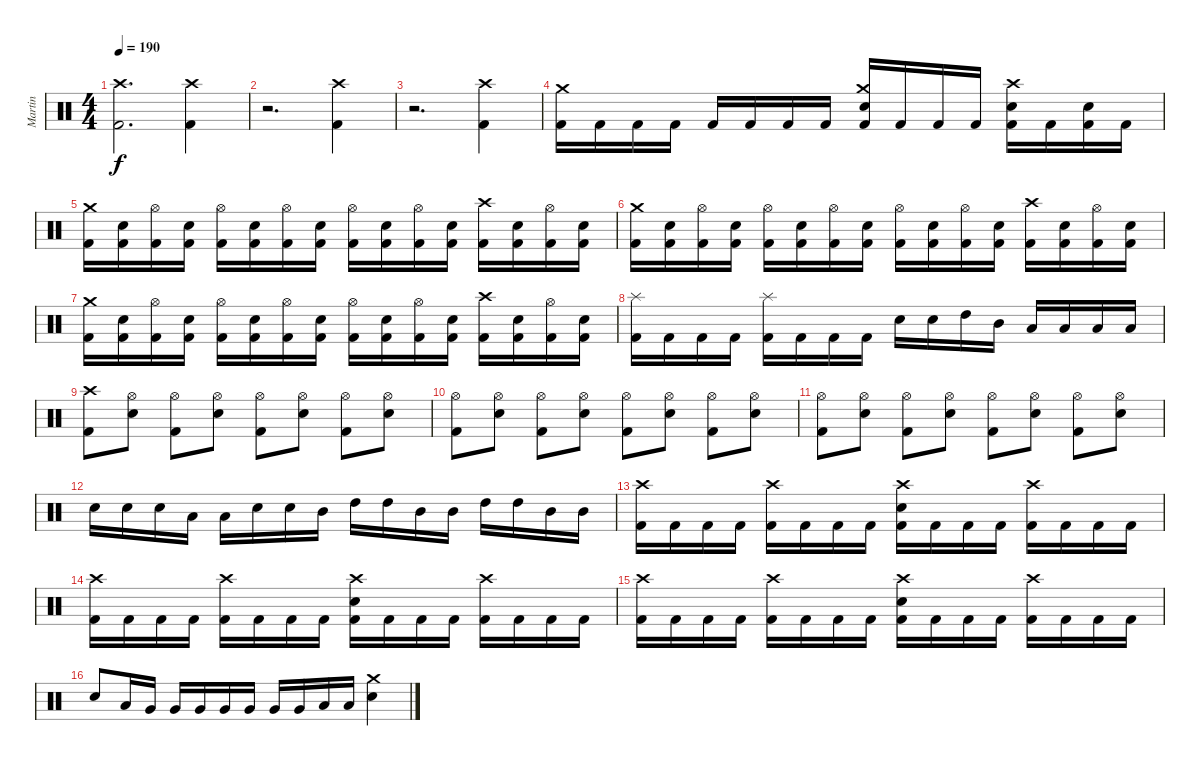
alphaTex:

\track ("Martin" "Martin") {instrument percussion}
\staff {score}
\articulation defaults
\ts (4 4)
\tempo 190
\clef neutral
\ks c
("Crash high (hit)" "Kick (hit) 2").2{d dy f} ("Crash high (hit)" "Kick (hit) 2").4 |
r.2{d} ("Crash high (hit)" "Kick (hit) 2").4 |
r.2{d} ("Crash high (hit)" "Kick (hit) 2").4 |
("Crash medium (hit)" "Kick (hit) 2").16 "Kick (hit) 2".16 "Kick (hit) 2".16 "Kick (hit) 2".16 "Kick (hit) 2".16 "Kick (hit) 2".16 "Kick (hit) 2".16 "Kick (hit) 2".16 ("Crash medium (hit)" "Snare (hit) 2" "Kick (hit) 2").16 "Kick (hit) 2".16 "Kick (hit) 2".16 "Kick (hit) 2".16 ("Crash high (hit)" "Snare (hit) 2" "Kick (hit) 2").16 "Kick (hit) 2".16 ("Snare (hit) 2" "Kick (hit) 2").16 "Kick (hit) 2".16 |
("Crash medium (hit)" "Kick (hit) 2").16 ("Snare (hit) 2" "Kick (hit) 2").16 ("Hi-Hat (open)" "Kick (hit) 2").16 ("Snare (hit) 2" "Kick (hit) 2").16 ("Hi-Hat (open)" "Kick (hit) 2").16 ("Snare (hit) 2" "Kick (hit) 2").16 ("Hi-Hat (open)" "Kick (hit) 2").16 ("Snare (hit) 2" "Kick (hit) 2").16 ("Hi-Hat (open)" "Kick (hit) 2").16 ("Snare (hit) 2" "Kick (hit) 2").16 ("Hi-Hat (open)" "Kick (hit) 2").16 ("Snare (hit) 2" "Kick (hit) 2").16 ("Crash high (hit)" "Kick (hit) 2").16 ("Snare (hit) 2" "Kick (hit) 2").16 ("Hi-Hat (open)" "Kick (hit) 2").16 ("Snare (hit) 2" "Kick (hit) 2").16 |
("Crash medium (hit)" "Kick (hit) 2").16 ("Snare (hit) 2" "Kick (hit) 2").16 ("Hi-Hat (open)" "Kick (hit) 2").16 ("Snare (hit) 2" "Kick (hit) 2").16 ("Hi-Hat (open)" "Kick (hit) 2").16 ("Snare (hit) 2" "Kick (hit) 2").16 ("Hi-Hat (open)" "Kick (hit) 2").16 ("Snare (hit) 2" "Kick (hit) 2").16 ("Hi-Hat (open)" "Kick (hit) 2").16 ("Snare (hit) 2" "Kick (hit) 2").16 ("Hi-Hat (open)" "Kick (hit) 2").16 ("Snare (hit) 2" "Kick (hit) 2").16 ("Crash high (hit)" "Kick (hit) 2").16 ("Snare (hit) 2" "Kick (hit) 2").16 ("Hi-Hat (open)" "Kick (hit) 2").16 ("Snare (hit) 2" "Kick (hit) 2").16 |
("Crash medium (hit)" "Kick (hit) 2").16 ("Snare (hit) 2" "Kick (hit) 2").16 ("Hi-Hat (open)" "Kick (hit) 2").16 ("Snare (hit) 2" "Kick (hit) 2").16 ("Hi-Hat (open)" "Kick (hit) 2").16 ("Snare (hit) 2" "Kick (hit) 2").16 ("Hi-Hat (open)" "Kick (hit) 2").16 ("Snare (hit) 2" "Kick (hit) 2").16 ("Hi-Hat (open)" "Kick (hit) 2").16 ("Snare (hit) 2" "Kick (hit) 2").16 ("Hi-Hat (open)" "Kick (hit) 2").16 ("Snare (hit) 2" "Kick (hit) 2").16 ("Crash high (hit)" "Kick (hit) 2").16 ("Snare (hit) 2" "Kick (hit) 2").16 ("Hi-Hat (open)" "Kick (hit) 2").16 ("Snare (hit) 2" "Kick (hit) 2").16 |
("Splash (hit)" "Kick (hit) 2").16 "Kick (hit) 2".16 "Kick (hit) 2".16 "Kick (hit) 2".16 ("Splash (hit)" "Kick (hit) 2").16 "Kick (hit) 2".16 "Kick (hit) 2".16 "Kick (hit) 2".16 "Snare (hit) 2".16 "Snare (hit) 2".16 "High Tom (hit)".16 "Mid Tom (hit)".16 "Low Tom (hit)".16 "Low Tom (hit)".16 "Low Tom (hit)".16 "Low Tom (hit)".16 |
("Crash high (hit)" "Kick (hit) 2").8 ("Hi-Hat (open)" "Snare (hit) 2").8 ("Hi-Hat (open)" "Kick (hit) 2").8 ("Hi-Hat (open)" "Snare (hit) 2").8 ("Hi-Hat (open)" "Kick (hit) 2").8 ("Hi-Hat (open)" "Snare (hit) 2").8 ("Hi-Hat (open)" "Kick (hit) 2").8 ("Hi-Hat (open)" "Snare (hit) 2").8 |
("Hi-Hat (open)" "Kick (hit) 2").8 ("Hi-Hat (open)" "Snare (hit) 2").8 ("Hi-Hat (open)" "Kick (hit) 2").8 ("Hi-Hat (open)" "Snare (hit) 2").8 ("Hi-Hat (open)" "Kick (hit) 2").8 ("Hi-Hat (open)" "Snare (hit) 2").8 ("Hi-Hat (open)" "Kick (hit) 2").8 ("Hi-Hat (open)" "Snare (hit) 2").8 |
("Hi-Hat (open)" "Kick (hit) 2").8 ("Hi-Hat (open)" "Snare (hit) 2").8 ("Hi-Hat (open)" "Kick (hit) 2").8 ("Hi-Hat (open)" "Snare (hit) 2").8 ("Hi-Hat (open)" "Kick (hit) 2").8 ("Hi-Hat (open)" "Snare (hit) 2").8 ("Hi-Hat (open)" "Kick (hit) 2").8 ("Hi-Hat (open)" "Snare (hit) 2").8 |
"Snare (hit) 2".16 "Snare (hit) 2".16 "Snare (hit) 2".16 "Low Tom (hit)".16 "Low Tom (hit)".16 "Snare (hit) 2".16 "Snare (hit) 2".16 "Mid Tom (hit)".16 "High Tom (hit)".16 "High Tom (hit)".16 "Mid Tom (hit)".16 "Mid Tom (hit)".16 "High Tom (hit)".16 "High Tom (hit)".16 "Mid Tom (hit)".16 "Mid Tom (hit)".16 |
("Crash high (hit)" "Kick (hit) 2").16 "Kick (hit) 2".16 "Kick (hit) 2".16 "Kick (hit) 2".16 ("Crash high (hit)" "Kick (hit) 2").16 "Kick (hit) 2".16 "Kick (hit) 2".16 "Kick (hit) 2".16 ("Crash high (hit)" "Snare (hit) 2" "Kick (hit) 2").16 "Kick (hit) 2".16 "Kick (hit) 2".16 "Kick (hit) 2".16 ("Crash high (hit)" "Kick (hit) 2").16 "Kick (hit) 2".16 "Kick (hit) 2".16 "Kick (hit) 2".16 |
("Crash high (hit)" "Kick (hit) 2").16 "Kick (hit) 2".16 "Kick (hit) 2".16 "Kick (hit) 2".16 ("Crash high (hit)" "Kick (hit) 2").16 "Kick (hit) 2".16 "Kick (hit) 2".16 "Kick (hit) 2".16 ("Crash high (hit)" "Snare (hit) 2" "Kick (hit) 2").16 "Kick (hit) 2".16 "Kick (hit) 2".16 "Kick (hit) 2".16 ("Crash high (hit)" "Kick (hit) 2").16 "Kick (hit) 2".16 "Kick (hit) 2".16 "Kick (hit) 2".16 |
("Crash high (hit)" "Kick (hit) 2").16 "Kick (hit) 2".16 "Kick (hit) 2".16 "Kick (hit) 2".16 ("Crash high (hit)" "Kick (hit) 2").16 "Kick (hit) 2".16 "Kick (hit) 2".16 "Kick (hit) 2".16 ("Crash high (hit)" "Snare (hit) 2" "Kick (hit) 2").16 "Kick (hit) 2".16 "Kick (hit) 2".16 "Kick (hit) 2".16 ("Crash high (hit)" "Kick (hit) 2").16 "Kick (hit) 2".16 "Kick (hit) 2".16 "Kick (hit) 2".16 |
"Snare (hit) 2".8 "Low Tom (hit)".16 "Very Low Tom (hit)".16 "Very Low Tom (hit)".16 "Very Low Tom (hit)".16 "Very Low Tom (hit)".16 "Very Low Tom (hit)".16 "Very Low Tom (hit)".16 "Very Low Tom (hit)".16 "Low Tom (hit)".16 "Low Tom (hit)".16 ("Crash medium (hit)" "Snare (hit) 2").4
